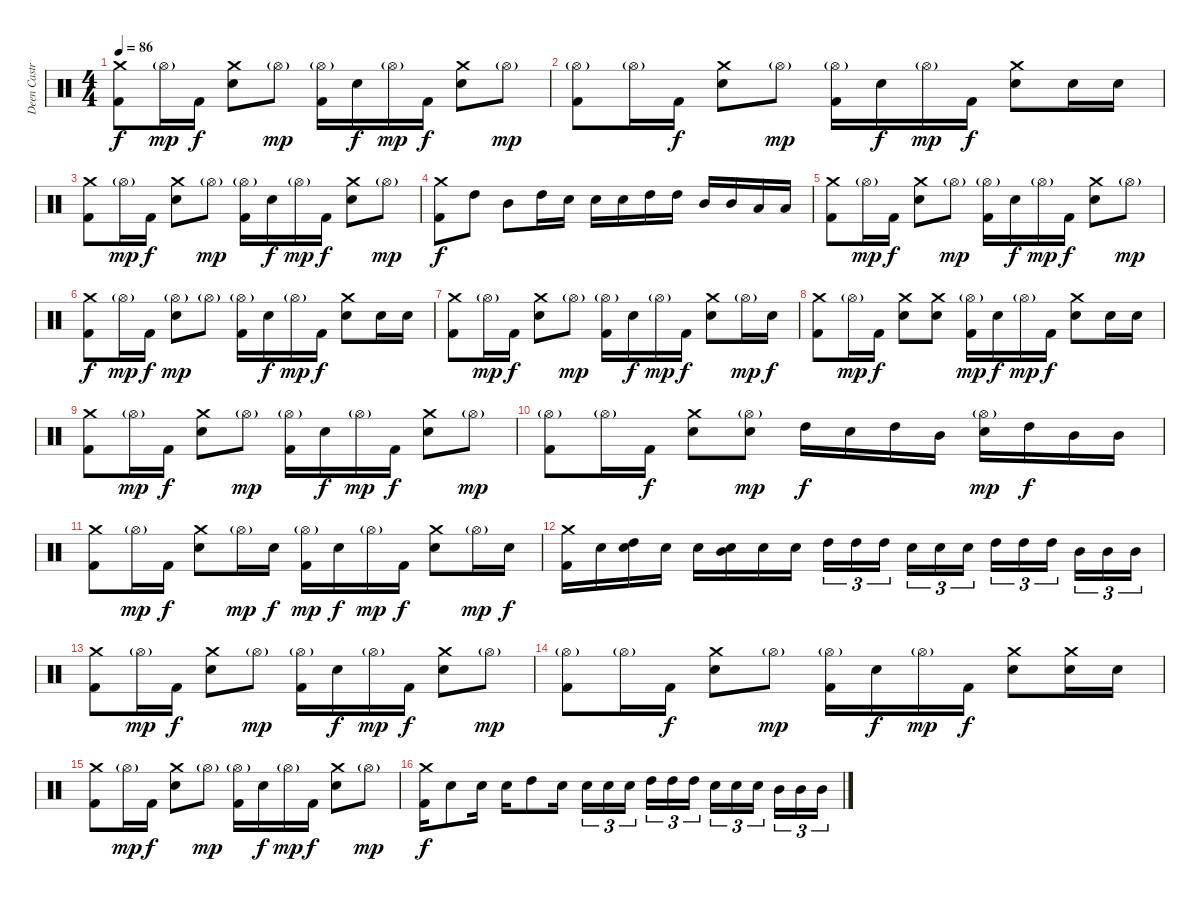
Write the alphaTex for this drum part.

\track ("Deen Castronovo" "Deen Castr") {instrument percussion}
\staff {score}
\articulation defaults
\ts (4 4)
\tempo 86
\clef neutral
\ks c
("Crash medium (hit)" "Kick (hit) 2").8{dy f} "Hi-Hat (open)"{g}.16{dy mp} "Kick (hit) 2".16{dy f} ("Crash medium (hit)" "Electric Snare (hit)").8 "Hi-Hat (open)"{g}.8{dy mp} ("Hi-Hat (open)"{g} "Kick (hit) 2").16 "Electric Snare (hit)".16{dy f} "Hi-Hat (open)"{g}.16{dy mp} "Kick (hit) 2".16{dy f} ("Crash medium (hit)" "Electric Snare (hit)").8 "Hi-Hat (open)"{g}.8{dy mp} |
("Hi-Hat (open)"{g} "Kick (hit) 2").8 "Hi-Hat (open)"{g}.16 "Kick (hit) 2".16{dy f} ("Crash medium (hit)" "Electric Snare (hit)").8 "Hi-Hat (open)"{g}.8{dy mp} ("Hi-Hat (open)"{g} "Kick (hit) 2").16 "Electric Snare (hit)".16{dy f} "Hi-Hat (open)"{g}.16{dy mp} "Kick (hit) 2".16{dy f} ("Crash medium (hit)" "Electric Snare (hit)").8 "Electric Snare (hit)".16 "Electric Snare (hit)".16 |
("Crash medium (hit)" "Kick (hit) 2").8 "Hi-Hat (open)"{g}.16{dy mp} "Kick (hit) 2".16{dy f} ("Crash medium (hit)" "Electric Snare (hit)").8 "Hi-Hat (open)"{g}.8{dy mp} ("Hi-Hat (open)"{g} "Kick (hit) 2").16 "Electric Snare (hit)".16{dy f} "Hi-Hat (open)"{g}.16{dy mp} "Kick (hit) 2".16{dy f} ("Crash medium (hit)" "Electric Snare (hit)").8 "Hi-Hat (open)"{g}.8{dy mp} |
("Crash medium (hit)" "Kick (hit) 2").8{dy f} "High Tom (hit)".8 "Mid Tom (hit)".8 "High Tom (hit)".16 "Electric Snare (hit)".16 "Electric Snare (hit)".16 "Electric Snare (hit)".16 "High Tom (hit)".16 "High Tom (hit)".16 "Mid Tom (hit)".16 "Mid Tom (hit)".16 "Low Tom (hit)".16 "Low Tom (hit)".16 |
("Crash medium (hit)" "Kick (hit) 2").8 "Hi-Hat (open)"{g}.16{dy mp} "Kick (hit) 2".16{dy f} ("Crash medium (hit)" "Electric Snare (hit)").8 "Hi-Hat (open)"{g}.8{dy mp} ("Hi-Hat (open)"{g} "Kick (hit) 2").16 "Electric Snare (hit)".16{dy f} "Hi-Hat (open)"{g}.16{dy mp} "Kick (hit) 2".16{dy f} ("Crash medium (hit)" "Electric Snare (hit)").8 "Hi-Hat (open)"{g}.8{dy mp} |
("Crash medium (hit)" "Kick (hit) 2").8{dy f} "Hi-Hat (open)"{g}.16{dy mp} "Kick (hit) 2".16{dy f} ("Hi-Hat (open)"{g} "Electric Snare (hit)").8{dy mp} "Hi-Hat (open)"{g}.8 ("Hi-Hat (open)"{g} "Kick (hit) 2").16 "Electric Snare (hit)".16{dy f} "Hi-Hat (open)"{g}.16{dy mp} "Kick (hit) 2".16{dy f} ("Crash medium (hit)" "Electric Snare (hit)").8 "Electric Snare (hit)".16 "Electric Snare (hit)".16 |
("Crash medium (hit)" "Kick (hit) 2").8 "Hi-Hat (open)"{g}.16{dy mp} "Kick (hit) 2".16{dy f} ("Crash medium (hit)" "Electric Snare (hit)").8 "Hi-Hat (open)"{g}.8{dy mp} ("Hi-Hat (open)"{g} "Kick (hit) 2").16 "Electric Snare (hit)".16{dy f} "Hi-Hat (open)"{g}.16{dy mp} "Kick (hit) 2".16{dy f} ("Crash medium (hit)" "Electric Snare (hit)").8 "Hi-Hat (open)"{g}.16{dy mp} "Electric Snare (hit)".16{dy f} |
("Crash medium (hit)" "Kick (hit) 2").8 "Hi-Hat (open)"{g}.16{dy mp} "Kick (hit) 2".16{dy f} ("Crash medium (hit)" "Electric Snare (hit)").8 ("Crash medium (hit)" "Electric Snare (hit)").8 ("Hi-Hat (open)"{g} "Kick (hit) 2").16{dy mp} "Electric Snare (hit)".16{dy f} "Hi-Hat (open)"{g}.16{dy mp} "Kick (hit) 2".16{dy f} ("Crash medium (hit)" "Electric Snare (hit)").8 "Electric Snare (hit)".16 "Electric Snare (hit)".16 |
("Crash medium (hit)" "Kick (hit) 2").8 "Hi-Hat (open)"{g}.16{dy mp} "Kick (hit) 2".16{dy f} ("Crash medium (hit)" "Electric Snare (hit)").8 "Hi-Hat (open)"{g}.8{dy mp} ("Hi-Hat (open)"{g} "Kick (hit) 2").16 "Electric Snare (hit)".16{dy f} "Hi-Hat (open)"{g}.16{dy mp} "Kick (hit) 2".16{dy f} ("Crash medium (hit)" "Electric Snare (hit)").8 "Hi-Hat (open)"{g}.8{dy mp} |
("Hi-Hat (open)"{g} "Kick (hit) 2").8 "Hi-Hat (open)"{g}.16 "Kick (hit) 2".16{dy f} ("Crash medium (hit)" "Electric Snare (hit)").8 ("Hi-Hat (open)"{g} "Electric Snare (hit)").8{dy mp} "High Tom (hit)".16{dy f} "Electric Snare (hit)".16 "High Tom (hit)".16 "Mid Tom (hit)".16 ("Hi-Hat (open)"{g} "Electric Snare (hit)").16{dy mp} "High Tom (hit)".16{dy f} "Mid Tom (hit)".16 "Mid Tom (hit)".16 |
("Crash medium (hit)" "Kick (hit) 2").8 "Hi-Hat (open)"{g}.16{dy mp} "Kick (hit) 2".16{dy f} ("Crash medium (hit)" "Electric Snare (hit)").8 "Hi-Hat (open)"{g}.16{dy mp} "Electric Snare (hit)".16{dy f} ("Hi-Hat (open)"{g} "Kick (hit) 2").16{dy mp} "Electric Snare (hit)".16{dy f} "Hi-Hat (open)"{g}.16{dy mp} "Kick (hit) 2".16{dy f} ("Crash medium (hit)" "Electric Snare (hit)").8 "Hi-Hat (open)"{g}.16{dy mp} "Electric Snare (hit)".16{dy f} |
("Crash medium (hit)" "Kick (hit) 2").16 "Electric Snare (hit)".16 ("Electric Snare (hit)" "High Tom (hit)").16 "Electric Snare (hit)".16 "Electric Snare (hit)".16 ("Electric Snare (hit)" "Mid Tom (hit)").16 "Electric Snare (hit)".16 "Electric Snare (hit)".16 "High Tom (hit)".16{tu (3 2)} "High Tom (hit)".16{tu (3 2)} "High Tom (hit)".16{tu (3 2)} "Electric Snare (hit)".16{tu (3 2)} "Electric Snare (hit)".16{tu (3 2)} "Electric Snare (hit)".16{tu (3 2)} "High Tom (hit)".16{tu (3 2)} "High Tom (hit)".16{tu (3 2)} "High Tom (hit)".16{tu (3 2)} "Mid Tom (hit)".16{tu (3 2)} "Mid Tom (hit)".16{tu (3 2)} "Mid Tom (hit)".16{tu (3 2)} |
("Crash medium (hit)" "Kick (hit) 2").8 "Hi-Hat (open)"{g}.16{dy mp} "Kick (hit) 2".16{dy f} ("Crash medium (hit)" "Electric Snare (hit)").8 "Hi-Hat (open)"{g}.8{dy mp} ("Hi-Hat (open)"{g} "Kick (hit) 2").16 "Electric Snare (hit)".16{dy f} "Hi-Hat (open)"{g}.16{dy mp} "Kick (hit) 2".16{dy f} ("Crash medium (hit)" "Electric Snare (hit)").8 "Hi-Hat (open)"{g}.8{dy mp} |
("Hi-Hat (open)"{g} "Kick (hit) 2").8 "Hi-Hat (open)"{g}.16 "Kick (hit) 2".16{dy f} ("Crash medium (hit)" "Electric Snare (hit)").8 "Hi-Hat (open)"{g}.8{dy mp} ("Hi-Hat (open)"{g} "Kick (hit) 2").16 "Electric Snare (hit)".16{dy f} "Hi-Hat (open)"{g}.16{dy mp} "Kick (hit) 2".16{dy f} ("Crash medium (hit)" "Electric Snare (hit)").8 ("Crash medium (hit)" "Electric Snare (hit)").16 "Electric Snare (hit)".16 |
("Crash medium (hit)" "Kick (hit) 2").8 "Hi-Hat (open)"{g}.16{dy mp} "Kick (hit) 2".16{dy f} ("Crash medium (hit)" "Electric Snare (hit)").8 "Hi-Hat (open)"{g}.8{dy mp} ("Hi-Hat (open)"{g} "Kick (hit) 2").16 "Electric Snare (hit)".16{dy f} "Hi-Hat (open)"{g}.16{dy mp} "Kick (hit) 2".16{dy f} ("Crash medium (hit)" "Electric Snare (hit)").8 "Hi-Hat (open)"{g}.8{dy mp} |
("Crash medium (hit)" "Kick (hit) 2").16{dy f} "Electric Snare (hit)".8 "Electric Snare (hit)".16 "Electric Snare (hit)".16 "High Tom (hit)".8 "Electric Snare (hit)".16 "Electric Snare (hit)".16{tu (3 2)} "Electric Snare (hit)".16{tu (3 2)} "Electric Snare (hit)".16{tu (3 2)} "High Tom (hit)".16{tu (3 2)} "High Tom (hit)".16{tu (3 2)} "High Tom (hit)".16{tu (3 2)} "Electric Snare (hit)".16{tu (3 2)} "Electric Snare (hit)".16{tu (3 2)} "Electric Snare (hit)".16{tu (3 2)} "Mid Tom (hit)".16{tu (3 2)} "Mid Tom (hit)".16{tu (3 2)} "Mid Tom (hit)".16{tu (3 2)}
